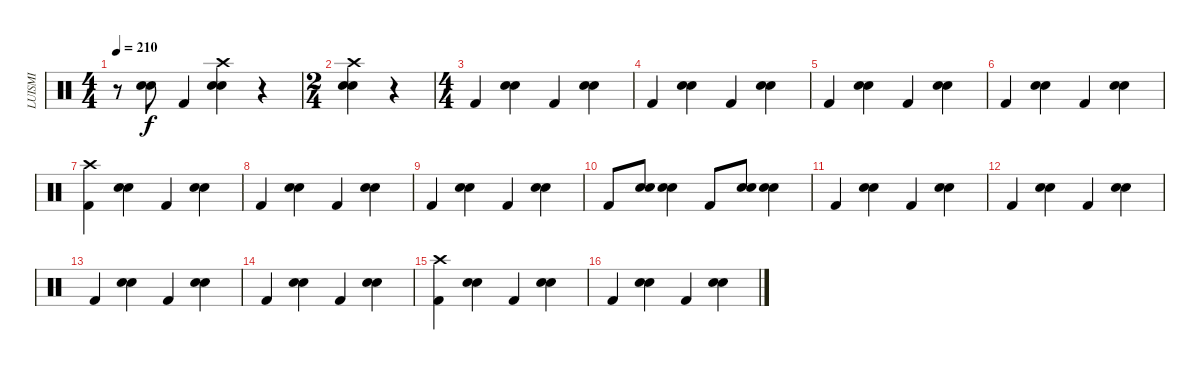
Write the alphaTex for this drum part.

\track ("LUISMI" "LUISMI") {instrument percussion}
\staff {score}
\articulation defaults
\ts (4 4)
\tempo 210
\clef neutral
\ks c
r.8{dy f} ("Electric Snare (hit)" "Snare (hit) 2").8 "Kick (hit) 2".4 ("Crash high (hit)" "Electric Snare (hit)" "Snare (hit) 2").4 r.4 |
\ts (2 4)
("Crash high (hit)" "Electric Snare (hit)" "Snare (hit) 2").4 r.4 |
\ts (4 4)
"Kick (hit) 2".4 ("Electric Snare (hit)" "Snare (hit) 2").4 "Kick (hit) 2".4 ("Electric Snare (hit)" "Snare (hit) 2").4 |
"Kick (hit) 2".4 ("Electric Snare (hit)" "Snare (hit) 2").4 "Kick (hit) 2".4 ("Electric Snare (hit)" "Snare (hit) 2").4 |
"Kick (hit) 2".4 ("Snare (hit) 2" "Electric Snare (hit)").4 "Kick (hit) 2".4 ("Electric Snare (hit)" "Snare (hit) 2").4 |
"Kick (hit) 2".4 ("Electric Snare (hit)" "Snare (hit) 2").4 "Kick (hit) 2".4 ("Electric Snare (hit)" "Snare (hit) 2").4 |
("Crash high (hit)" "Kick (hit) 2").4 ("Electric Snare (hit)" "Snare (hit) 2").4 "Kick (hit) 2".4 ("Electric Snare (hit)" "Snare (hit) 2").4 |
"Kick (hit) 2".4 ("Electric Snare (hit)" "Snare (hit) 2").4 "Kick (hit) 2".4 ("Electric Snare (hit)" "Snare (hit) 2").4 |
"Kick (hit) 2".4 ("Snare (hit) 2" "Electric Snare (hit)").4 "Kick (hit) 2".4 ("Electric Snare (hit)" "Snare (hit) 2").4 |
"Kick (hit) 2".8 ("Electric Snare (hit)" "Snare (hit) 2").8 ("Electric Snare (hit)" "Snare (hit) 2").4 "Kick (hit) 2".8 ("Electric Snare (hit)" "Snare (hit) 2").8 ("Electric Snare (hit)" "Snare (hit) 2").4 |
"Kick (hit) 2".4 ("Electric Snare (hit)" "Snare (hit) 2").4 "Kick (hit) 2".4 ("Electric Snare (hit)" "Snare (hit) 2").4 |
"Kick (hit) 2".4 ("Electric Snare (hit)" "Snare (hit) 2").4 "Kick (hit) 2".4 ("Electric Snare (hit)" "Snare (hit) 2").4 |
"Kick (hit) 2".4 ("Snare (hit) 2" "Electric Snare (hit)").4 "Kick (hit) 2".4 ("Electric Snare (hit)" "Snare (hit) 2").4 |
"Kick (hit) 2".4 ("Electric Snare (hit)" "Snare (hit) 2").4 "Kick (hit) 2".4 ("Electric Snare (hit)" "Snare (hit) 2").4 |
("Crash high (hit)" "Kick (hit) 2").4 ("Electric Snare (hit)" "Snare (hit) 2").4 "Kick (hit) 2".4 ("Electric Snare (hit)" "Snare (hit) 2").4 |
"Kick (hit) 2".4 ("Electric Snare (hit)" "Snare (hit) 2").4 "Kick (hit) 2".4 ("Electric Snare (hit)" "Snare (hit) 2").4
